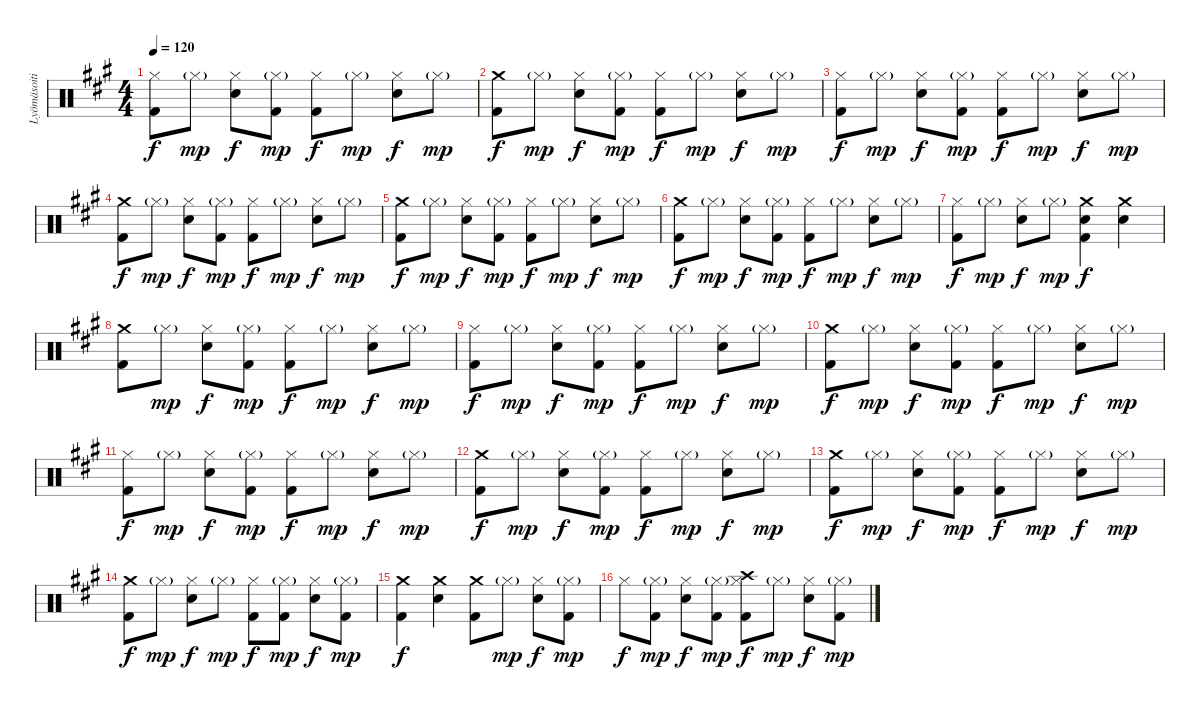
\track ("Lyömäsoitin" "Lyömäsoiti") {instrument percussion}
\staff {score}
\articulation defaults
\ts (4 4)
\tempo 120
\clef neutral
\ks f#minor
("Hi-Hat (closed)" "Kick (hit) 2").8{dy f} "Hi-Hat (closed)"{g}.8{dy mp} ("Hi-Hat (closed)" "Snare (hit) 2").8{dy f} ("Hi-Hat (closed)"{g} "Kick (hit) 2").8{dy mp} ("Hi-Hat (closed)" "Kick (hit) 2").8{dy f} "Hi-Hat (closed)"{g}.8{dy mp} ("Hi-Hat (closed)" "Snare (hit) 2").8{dy f} "Hi-Hat (closed)"{g}.8{dy mp} |
("Kick (hit) 2" "Crash medium (hit)").8{dy f} "Hi-Hat (closed)"{g}.8{dy mp} ("Snare (hit) 2" "Hi-Hat (closed)").8{dy f} ("Hi-Hat (closed)"{g} "Kick (hit) 2").8{dy mp} ("Hi-Hat (closed)" "Kick (hit) 2").8{dy f} "Hi-Hat (closed)"{g}.8{dy mp} ("Hi-Hat (closed)" "Snare (hit) 2").8{dy f} "Hi-Hat (closed)"{g}.8{dy mp} |
("Hi-Hat (closed)" "Kick (hit) 2").8{dy f} "Hi-Hat (closed)"{g}.8{dy mp} ("Hi-Hat (closed)" "Snare (hit) 2").8{dy f} ("Hi-Hat (closed)"{g} "Kick (hit) 2").8{dy mp} ("Hi-Hat (closed)" "Kick (hit) 2").8{dy f} "Hi-Hat (closed)"{g}.8{dy mp} ("Hi-Hat (closed)" "Snare (hit) 2").8{dy f} "Hi-Hat (closed)"{g}.8{dy mp} |
("Kick (hit) 2" "Crash medium (hit)").8{dy f} "Hi-Hat (closed)"{g}.8{dy mp} ("Snare (hit) 2" "Hi-Hat (closed)").8{dy f} ("Hi-Hat (closed)"{g} "Kick (hit) 2").8{dy mp} ("Hi-Hat (closed)" "Kick (hit) 2").8{dy f} "Hi-Hat (closed)"{g}.8{dy mp} ("Hi-Hat (closed)" "Snare (hit) 2").8{dy f} "Hi-Hat (closed)"{g}.8{dy mp} |
("Crash medium (hit)" "Kick (hit) 2").8{dy f} "Hi-Hat (closed)"{g}.8{dy mp} ("Hi-Hat (closed)" "Snare (hit) 2").8{dy f} ("Hi-Hat (closed)"{g} "Kick (hit) 2").8{dy mp} ("Hi-Hat (closed)" "Kick (hit) 2").8{dy f} "Hi-Hat (closed)"{g}.8{dy mp} ("Hi-Hat (closed)" "Snare (hit) 2").8{dy f} "Hi-Hat (closed)"{g}.8{dy mp} |
("Kick (hit) 2" "Crash medium (hit)").8{dy f} "Hi-Hat (closed)"{g}.8{dy mp} ("Hi-Hat (closed)" "Snare (hit) 2").8{dy f} ("Hi-Hat (closed)"{g} "Kick (hit) 2").8{dy mp} ("Hi-Hat (closed)" "Kick (hit) 2").8{dy f} "Hi-Hat (closed)"{g}.8{dy mp} ("Hi-Hat (closed)" "Snare (hit) 2").8{dy f} "Hi-Hat (closed)"{g}.8{dy mp} |
("Kick (hit) 2" "Hi-Hat (closed)").8{dy f} "Hi-Hat (closed)"{g}.8{dy mp} ("Hi-Hat (closed)" "Snare (hit) 2").8{dy f} "Hi-Hat (closed)"{g}.8{dy mp} ("Snare (hit) 2" "Crash medium (hit)" "Kick (hit) 2").4{dy f} ("Snare (hit) 2" "Crash medium (hit)").4 |
("Kick (hit) 2" "Crash medium (hit)").8 "Hi-Hat (closed)"{g}.8{dy mp} ("Hi-Hat (closed)" "Snare (hit) 2").8{dy f} ("Hi-Hat (closed)"{g} "Kick (hit) 2").8{dy mp} ("Hi-Hat (closed)" "Kick (hit) 2").8{dy f} "Hi-Hat (closed)"{g}.8{dy mp} ("Hi-Hat (closed)" "Snare (hit) 2").8{dy f} "Hi-Hat (closed)"{g}.8{dy mp} |
("Hi-Hat (closed)" "Kick (hit) 2").8{dy f} "Hi-Hat (closed)"{g}.8{dy mp} ("Hi-Hat (closed)" "Snare (hit) 2").8{dy f} ("Hi-Hat (closed)"{g} "Kick (hit) 2").8{dy mp} ("Hi-Hat (closed)" "Kick (hit) 2").8{dy f} "Hi-Hat (closed)"{g}.8{dy mp} ("Hi-Hat (closed)" "Snare (hit) 2").8{dy f} "Hi-Hat (closed)"{g}.8{dy mp} |
("Kick (hit) 2" "Crash medium (hit)").8{dy f} "Hi-Hat (closed)"{g}.8{dy mp} ("Snare (hit) 2" "Hi-Hat (closed)").8{dy f} ("Hi-Hat (closed)"{g} "Kick (hit) 2").8{dy mp} ("Hi-Hat (closed)" "Kick (hit) 2").8{dy f} "Hi-Hat (closed)"{g}.8{dy mp} ("Hi-Hat (closed)" "Snare (hit) 2").8{dy f} "Hi-Hat (closed)"{g}.8{dy mp} |
("Hi-Hat (closed)" "Kick (hit) 2").8{dy f} "Hi-Hat (closed)"{g}.8{dy mp} ("Hi-Hat (closed)" "Snare (hit) 2").8{dy f} ("Hi-Hat (closed)"{g} "Kick (hit) 2").8{dy mp} ("Hi-Hat (closed)" "Kick (hit) 2").8{dy f} "Hi-Hat (closed)"{g}.8{dy mp} ("Hi-Hat (closed)" "Snare (hit) 2").8{dy f} "Hi-Hat (closed)"{g}.8{dy mp} |
("Kick (hit) 2" "Crash medium (hit)").8{dy f} "Hi-Hat (closed)"{g}.8{dy mp} ("Snare (hit) 2" "Hi-Hat (closed)").8{dy f} ("Hi-Hat (closed)"{g} "Kick (hit) 2").8{dy mp} ("Hi-Hat (closed)" "Kick (hit) 2").8{dy f} "Hi-Hat (closed)"{g}.8{dy mp} ("Hi-Hat (closed)" "Snare (hit) 2").8{dy f} "Hi-Hat (closed)"{g}.8{dy mp} |
("Crash medium (hit)" "Kick (hit) 2").8{dy f} "Hi-Hat (closed)"{g}.8{dy mp} ("Hi-Hat (closed)" "Snare (hit) 2").8{dy f} ("Hi-Hat (closed)"{g} "Kick (hit) 2").8{dy mp} ("Hi-Hat (closed)" "Kick (hit) 2").8{dy f} "Hi-Hat (closed)"{g}.8{dy mp} ("Hi-Hat (closed)" "Snare (hit) 2").8{dy f} "Hi-Hat (closed)"{g}.8{dy mp} |
("Kick (hit) 2" "Crash medium (hit)").8{dy f} "Hi-Hat (closed)"{g}.8{dy mp} ("Hi-Hat (closed)" "Snare (hit) 2").8{dy f} "Hi-Hat (closed)"{g}.8{dy mp} ("Kick (hit) 2" "Hi-Hat (closed)").8{dy f} ("Hi-Hat (closed)"{g} "Kick (hit) 2").8{dy mp} ("Snare (hit) 2" "Hi-Hat (closed)").8{dy f} ("Hi-Hat (closed)"{g} "Kick (hit) 2").8{dy mp} |
("Kick (hit) 2" "Crash medium (hit)").4{dy f} ("Snare (hit) 2" "Crash medium (hit)").4 ("Kick (hit) 2" "Crash medium (hit)").8 "Hi-Hat (closed)"{g}.8{dy mp} ("Hi-Hat (closed)" "Snare (hit) 2").8{dy f} ("Hi-Hat (closed)"{g} "Kick (hit) 2").8{dy mp} |
"Hi-Hat (closed)".8{dy f} ("Kick (hit) 2" "Hi-Hat (closed)"{g}).8{dy mp} ("Hi-Hat (closed)" "Snare (hit) 2").8{dy f} ("Hi-Hat (closed)"{g} "Kick (hit) 2").8{dy mp} ("Hi-Hat (closed)" "Crash high (hit)" "Kick (hit) 2").8{dy f} "Hi-Hat (closed)"{g}.8{dy mp} ("Hi-Hat (closed)" "Snare (hit) 2").8{dy f} ("Hi-Hat (closed)"{g} "Kick (hit) 2").8{dy mp}
